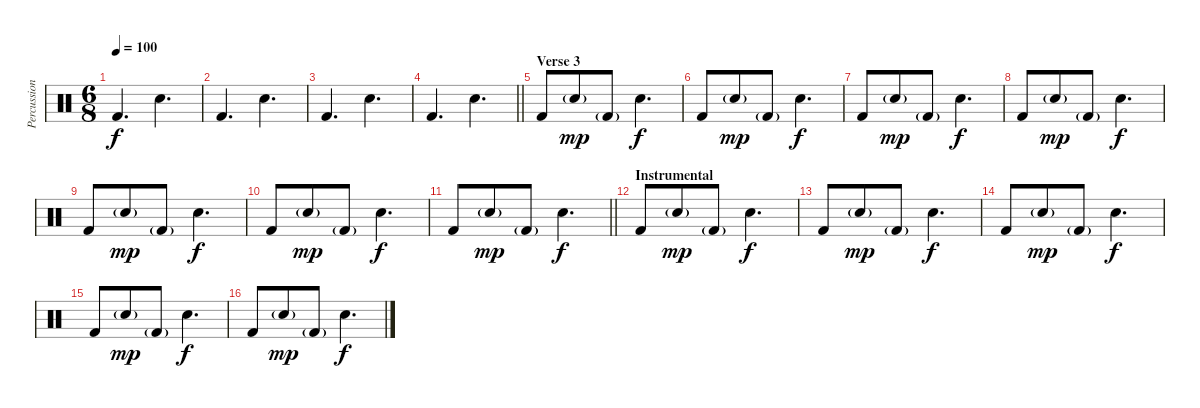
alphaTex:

\track ("Percussion" "Percussion") {instrument percussion}
\staff {score}
\articulation defaults
\ts (6 8)
\tempo 100
\clef neutral
\ks c "Kick (hit) 2".4{d dy f} "Snare (hit) 2".4{d}
|
"Kick (hit) 2".4{d} "Snare (hit) 2".4{d} |
"Kick (hit) 2".4{d} "Snare (hit) 2".4{d} |
\barLineRight lightlight "Kick (hit) 2".4{d} "Snare (hit) 2".4{d}
|
\section ("" "Verse 3")
"Kick (hit) 2".8 "Snare (hit) 2"{g}.8{dy mp} "Kick (hit) 2"{g}.8 "Snare (hit) 2".4{d dy f} |
"Kick (hit) 2".8 "Snare (hit) 2"{g}.8{dy mp} "Kick (hit) 2"{g}.8 "Snare (hit) 2".4{d dy f} |
"Kick (hit) 2".8 "Snare (hit) 2"{g}.8{dy mp} "Kick (hit) 2"{g}.8 "Snare (hit) 2".4{d dy f} |
"Kick (hit) 2".8 "Snare (hit) 2"{g}.8{dy mp} "Kick (hit) 2"{g}.8 "Snare (hit) 2".4{d dy f} |
"Kick (hit) 2".8 "Snare (hit) 2"{g}.8{dy mp} "Kick (hit) 2"{g}.8 "Snare (hit) 2".4{d dy f} |
"Kick (hit) 2".8 "Snare (hit) 2"{g}.8{dy mp} "Kick (hit) 2"{g}.8 "Snare (hit) 2".4{d dy f} |
\barLineRight lightlight "Kick (hit) 2".8 "Snare (hit) 2"{g}.8{dy mp} "Kick (hit) 2"{g}.8 "Snare (hit) 2".4{d dy f}
|
\section ("" "Instrumental")
"Kick (hit) 2".8 "Snare (hit) 2"{g}.8{dy mp} "Kick (hit) 2"{g}.8 "Snare (hit) 2".4{d dy f} |
"Kick (hit) 2".8 "Snare (hit) 2"{g}.8{dy mp} "Kick (hit) 2"{g}.8 "Snare (hit) 2".4{d dy f} |
"Kick (hit) 2".8 "Snare (hit) 2"{g}.8{dy mp} "Kick (hit) 2"{g}.8 "Snare (hit) 2".4{d dy f} |
"Kick (hit) 2".8 "Snare (hit) 2"{g}.8{dy mp} "Kick (hit) 2"{g}.8 "Snare (hit) 2".4{d dy f} |
"Kick (hit) 2".8 "Snare (hit) 2"{g}.8{dy mp} "Kick (hit) 2"{g}.8 "Snare (hit) 2".4{d dy f}
